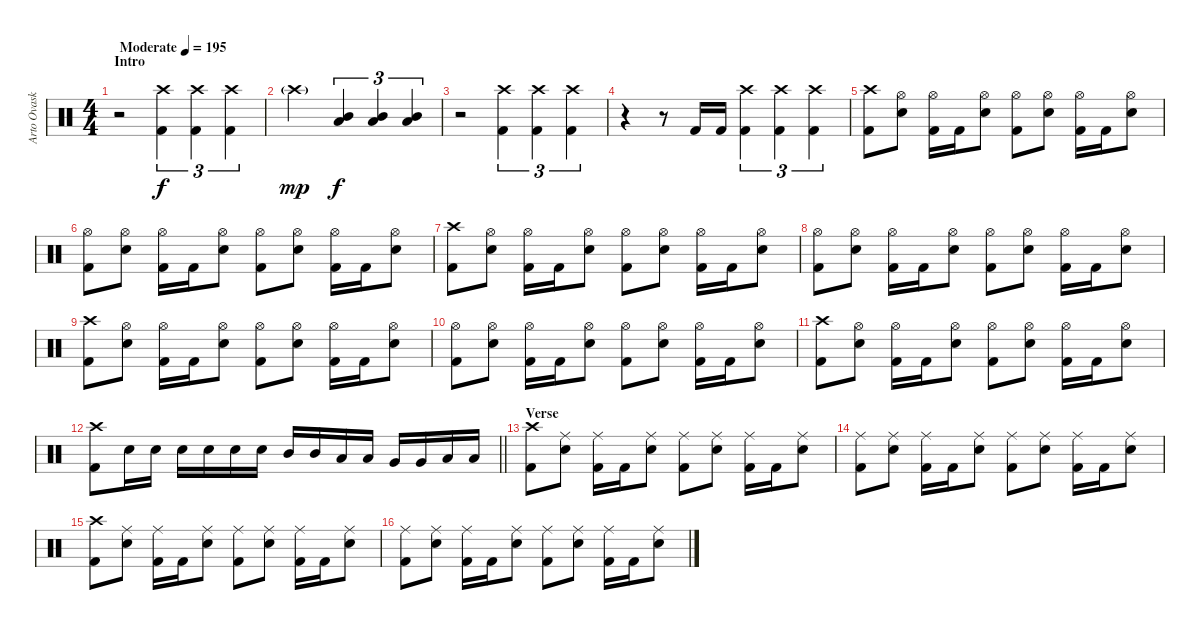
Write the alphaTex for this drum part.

\track ("Arto Ovaskainen" "Arto Ovask") {instrument percussion}
\staff {score}
\articulation defaults
\ts (4 4)
\section ("" "Intro")
\tempo (195 "Moderate")
\clef neutral
\ks c
r.2{dy f} ("Crash high (hit)" "Kick (hit) 2").4{tu (3 2)} ("Crash high (hit)" "Kick (hit) 2").4{tu (3 2)} ("Crash high (hit)" "Kick (hit) 2").4{tu (3 2)} |
"Crash high (hit)"{g}.2{dy mp} ("Mid Tom (hit)" "Low Tom (hit)").4{tu (3 2) dy f} ("Mid Tom (hit)" "Low Tom (hit)").4{tu (3 2)} ("Mid Tom (hit)" "Low Tom (hit)").4{tu (3 2)} |
r.2 ("Crash high (hit)" "Kick (hit) 2").4{tu (3 2)} ("Crash high (hit)" "Kick (hit) 2").4{tu (3 2)} ("Crash high (hit)" "Kick (hit) 2").4{tu (3 2)} |
r.4 r.8 "Kick (hit) 2".16 "Kick (hit) 2".16 ("Crash high (hit)" "Kick (hit) 2").4{tu (3 2)} ("Crash high (hit)" "Kick (hit) 2").4{tu (3 2)} ("Crash high (hit)" "Kick (hit) 2").4{tu (3 2)} |
("Crash high (hit)" "Kick (hit) 2").8 ("Hi-Hat (open)" "Electric Snare (hit)").8 ("Hi-Hat (open)" "Kick (hit) 2").16 "Kick (hit) 2".16 ("Hi-Hat (open)" "Electric Snare (hit)").8 ("Hi-Hat (open)" "Kick (hit) 2").8 ("Hi-Hat (open)" "Electric Snare (hit)").8 ("Hi-Hat (open)" "Kick (hit) 2").16 "Kick (hit) 2".16 ("Hi-Hat (open)" "Electric Snare (hit)").8 |
("Hi-Hat (open)" "Kick (hit) 2").8 ("Hi-Hat (open)" "Electric Snare (hit)").8 ("Hi-Hat (open)" "Kick (hit) 2").16 "Kick (hit) 2".16 ("Hi-Hat (open)" "Electric Snare (hit)").8 ("Hi-Hat (open)" "Kick (hit) 2").8 ("Hi-Hat (open)" "Electric Snare (hit)").8 ("Hi-Hat (open)" "Kick (hit) 2").16 "Kick (hit) 2".16 ("Hi-Hat (open)" "Electric Snare (hit)").8 |
("Crash high (hit)" "Kick (hit) 2").8 ("Hi-Hat (open)" "Electric Snare (hit)").8 ("Hi-Hat (open)" "Kick (hit) 2").16 "Kick (hit) 2".16 ("Hi-Hat (open)" "Electric Snare (hit)").8 ("Hi-Hat (open)" "Kick (hit) 2").8 ("Hi-Hat (open)" "Electric Snare (hit)").8 ("Hi-Hat (open)" "Kick (hit) 2").16 "Kick (hit) 2".16 ("Hi-Hat (open)" "Electric Snare (hit)").8 |
("Hi-Hat (open)" "Kick (hit) 2").8 ("Hi-Hat (open)" "Electric Snare (hit)").8 ("Hi-Hat (open)" "Kick (hit) 2").16 "Kick (hit) 2".16 ("Hi-Hat (open)" "Electric Snare (hit)").8 ("Hi-Hat (open)" "Kick (hit) 2").8 ("Hi-Hat (open)" "Electric Snare (hit)").8 ("Hi-Hat (open)" "Kick (hit) 2").16 "Kick (hit) 2".16 ("Hi-Hat (open)" "Electric Snare (hit)").8 |
("Crash high (hit)" "Kick (hit) 2").8 ("Hi-Hat (open)" "Electric Snare (hit)").8 ("Hi-Hat (open)" "Kick (hit) 2").16 "Kick (hit) 2".16 ("Hi-Hat (open)" "Electric Snare (hit)").8 ("Hi-Hat (open)" "Kick (hit) 2").8 ("Hi-Hat (open)" "Electric Snare (hit)").8 ("Hi-Hat (open)" "Kick (hit) 2").16 "Kick (hit) 2".16 ("Hi-Hat (open)" "Electric Snare (hit)").8 |
("Hi-Hat (open)" "Kick (hit) 2").8 ("Hi-Hat (open)" "Electric Snare (hit)").8 ("Hi-Hat (open)" "Kick (hit) 2").16 "Kick (hit) 2".16 ("Hi-Hat (open)" "Electric Snare (hit)").8 ("Hi-Hat (open)" "Kick (hit) 2").8 ("Hi-Hat (open)" "Electric Snare (hit)").8 ("Hi-Hat (open)" "Kick (hit) 2").16 "Kick (hit) 2".16 ("Hi-Hat (open)" "Electric Snare (hit)").8 |
("Crash high (hit)" "Kick (hit) 2").8 ("Hi-Hat (open)" "Electric Snare (hit)").8 ("Hi-Hat (open)" "Kick (hit) 2").16 "Kick (hit) 2".16 ("Hi-Hat (open)" "Electric Snare (hit)").8 ("Hi-Hat (open)" "Kick (hit) 2").8 ("Hi-Hat (open)" "Electric Snare (hit)").8 ("Hi-Hat (open)" "Kick (hit) 2").16 "Kick (hit) 2".16 ("Hi-Hat (open)" "Electric Snare (hit)").8 |
\barLineRight lightlight
("Crash high (hit)" "Kick (hit) 2").8 "Electric Snare (hit)".16 "Electric Snare (hit)".16 "Electric Snare (hit)".16 "Electric Snare (hit)".16 "Electric Snare (hit)".16 "Electric Snare (hit)".16 "Mid Tom (hit)".16 "Mid Tom (hit)".16 "Low Tom (hit)".16 "Low Tom (hit)".16 "Very Low Tom (hit)".16 "Very Low Tom (hit)".16 "Low Floor Tom (hit)".16 "Low Floor Tom (hit)".16 |
\section ("" "Verse")
("Crash high (hit)" "Kick (hit) 2").8 ("Ride (middle)" "Electric Snare (hit)").8 ("Ride (middle)" "Kick (hit) 2").16 "Kick (hit) 2".16 ("Ride (middle)" "Electric Snare (hit)").8 ("Ride (middle)" "Kick (hit) 2").8 ("Ride (middle)" "Electric Snare (hit)").8 ("Ride (middle)" "Kick (hit) 2").16 "Kick (hit) 2".16 ("Ride (middle)" "Electric Snare (hit)").8 |
("Ride (middle)" "Kick (hit) 2").8 ("Ride (middle)" "Electric Snare (hit)").8 ("Ride (middle)" "Kick (hit) 2").16 "Kick (hit) 2".16 ("Ride (middle)" "Electric Snare (hit)").8 ("Ride (middle)" "Kick (hit) 2").8 ("Ride (middle)" "Electric Snare (hit)").8 ("Ride (middle)" "Kick (hit) 2").16 "Kick (hit) 2".16 ("Ride (middle)" "Electric Snare (hit)").8 |
("Crash high (hit)" "Kick (hit) 2").8 ("Ride (middle)" "Electric Snare (hit)").8 ("Ride (middle)" "Kick (hit) 2").16 "Kick (hit) 2".16 ("Ride (middle)" "Electric Snare (hit)").8 ("Ride (middle)" "Kick (hit) 2").8 ("Ride (middle)" "Electric Snare (hit)").8 ("Ride (middle)" "Kick (hit) 2").16 "Kick (hit) 2".16 ("Ride (middle)" "Electric Snare (hit)").8 |
("Ride (middle)" "Kick (hit) 2").8 ("Ride (middle)" "Electric Snare (hit)").8 ("Ride (middle)" "Kick (hit) 2").16 "Kick (hit) 2".16 ("Ride (middle)" "Electric Snare (hit)").8 ("Ride (middle)" "Kick (hit) 2").8 ("Ride (middle)" "Electric Snare (hit)").8 ("Ride (middle)" "Kick (hit) 2").16 "Kick (hit) 2".16 ("Ride (middle)" "Electric Snare (hit)").8
